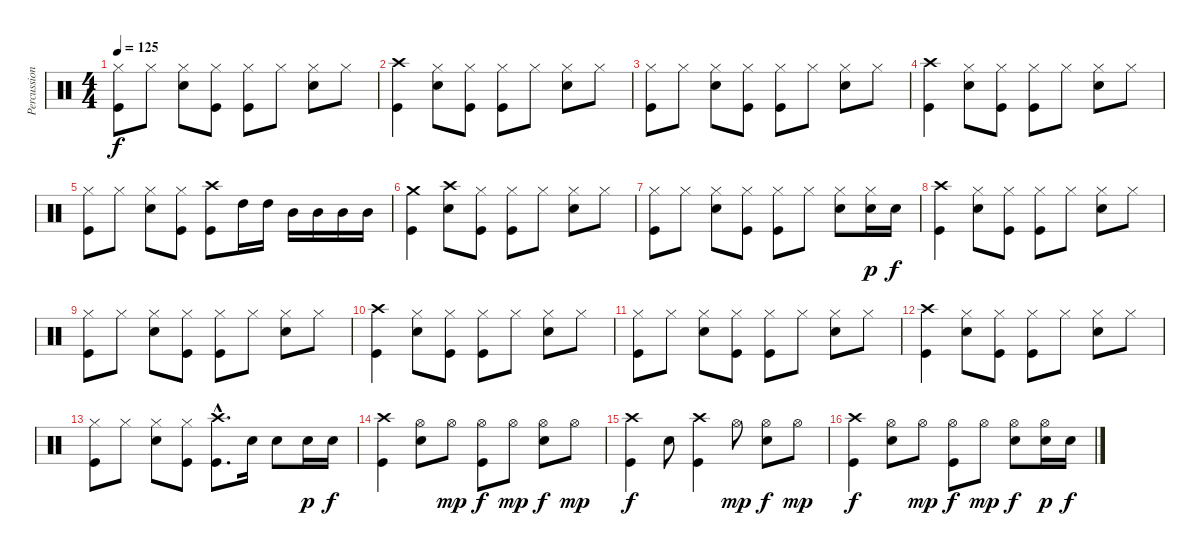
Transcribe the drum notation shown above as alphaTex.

\track ("Percussion" "Percussion") {instrument percussion}
\staff {score}
\articulation defaults
\ts (4 4)
\tempo 125
\clef neutral
\ks c
("Hi-Hat (closed)" "Kick (hit)").8{dy f} "Hi-Hat (closed)".8 ("Hi-Hat (closed)" "Electric Snare (hit)").8 ("Hi-Hat (closed)" "Kick (hit)").8 ("Hi-Hat (closed)" "Kick (hit)").8 "Hi-Hat (closed)".8 ("Hi-Hat (closed)" "Electric Snare (hit)").8 "Hi-Hat (closed)".8 |
("Crash high (hit)" "Kick (hit)").4 ("Hi-Hat (closed)" "Electric Snare (hit)").8 ("Hi-Hat (closed)" "Kick (hit)").8 ("Hi-Hat (closed)" "Kick (hit)").8 "Hi-Hat (closed)".8 ("Hi-Hat (closed)" "Electric Snare (hit)").8 "Hi-Hat (closed)".8 |
("Hi-Hat (closed)" "Kick (hit)").8 "Hi-Hat (closed)".8 ("Hi-Hat (closed)" "Electric Snare (hit)").8 ("Hi-Hat (closed)" "Kick (hit)").8 ("Hi-Hat (closed)" "Kick (hit)").8 "Hi-Hat (closed)".8 ("Hi-Hat (closed)" "Electric Snare (hit)").8 "Hi-Hat (closed)".8 |
("Crash high (hit)" "Kick (hit)").4 ("Hi-Hat (closed)" "Electric Snare (hit)").8 ("Hi-Hat (closed)" "Kick (hit)").8 ("Hi-Hat (closed)" "Kick (hit)").8 "Hi-Hat (closed)".8 ("Hi-Hat (closed)" "Electric Snare (hit)").8 "Hi-Hat (closed)".8 |
("Hi-Hat (closed)" "Kick (hit)").8 "Hi-Hat (closed)".8 ("Hi-Hat (closed)" "Electric Snare (hit)").8 ("Hi-Hat (closed)" "Kick (hit)").8 ("Crash high (hit)" "Kick (hit)").8 "High Tom (hit)".16 "High Tom (hit)".16 "Mid Tom (hit)".16 "Mid Tom (hit)".16 "Mid Tom (hit)".16 "Mid Tom (hit)".16 |
("Crash medium (hit)" "Kick (hit)").4 ("Crash high (hit)" "Electric Snare (hit)").8 ("Hi-Hat (closed)" "Kick (hit)").8 ("Hi-Hat (closed)" "Kick (hit)").8 "Hi-Hat (closed)".8 ("Hi-Hat (closed)" "Electric Snare (hit)").8 "Hi-Hat (closed)".8 |
("Hi-Hat (closed)" "Kick (hit)").8 "Hi-Hat (closed)".8 ("Hi-Hat (closed)" "Electric Snare (hit)").8 ("Hi-Hat (closed)" "Kick (hit)").8 ("Hi-Hat (closed)" "Kick (hit)").8 "Hi-Hat (closed)".8 ("Hi-Hat (closed)" "Electric Snare (hit)").8 ("Hi-Hat (closed)" "Electric Snare (hit)").16{dy p} "Electric Snare (hit)".16{dy f} |
("Crash high (hit)" "Kick (hit)").4 ("Hi-Hat (closed)" "Electric Snare (hit)").8 ("Hi-Hat (closed)" "Kick (hit)").8 ("Hi-Hat (closed)" "Kick (hit)").8 "Hi-Hat (closed)".8 ("Hi-Hat (closed)" "Electric Snare (hit)").8 "Hi-Hat (closed)".8 |
("Hi-Hat (closed)" "Kick (hit)").8 "Hi-Hat (closed)".8 ("Hi-Hat (closed)" "Electric Snare (hit)").8 ("Hi-Hat (closed)" "Kick (hit)").8 ("Hi-Hat (closed)" "Kick (hit)").8 "Hi-Hat (closed)".8 ("Hi-Hat (closed)" "Electric Snare (hit)").8 "Hi-Hat (closed)".8 |
("Crash high (hit)" "Kick (hit)").4 ("Hi-Hat (closed)" "Electric Snare (hit)").8 ("Hi-Hat (closed)" "Kick (hit)").8 ("Hi-Hat (closed)" "Kick (hit)").8 "Hi-Hat (closed)".8 ("Hi-Hat (closed)" "Electric Snare (hit)").8 "Hi-Hat (closed)".8 |
("Hi-Hat (closed)" "Kick (hit)").8 "Hi-Hat (closed)".8 ("Hi-Hat (closed)" "Electric Snare (hit)").8 ("Hi-Hat (closed)" "Kick (hit)").8 ("Hi-Hat (closed)" "Kick (hit)").8 "Hi-Hat (closed)".8 ("Hi-Hat (closed)" "Electric Snare (hit)").8 "Hi-Hat (closed)".8 |
("Crash high (hit)" "Kick (hit)").4 ("Hi-Hat (closed)" "Electric Snare (hit)").8 ("Hi-Hat (closed)" "Kick (hit)").8 ("Hi-Hat (closed)" "Kick (hit)").8 "Hi-Hat (closed)".8 ("Hi-Hat (closed)" "Electric Snare (hit)").8 "Hi-Hat (closed)".8 |
("Hi-Hat (closed)" "Kick (hit)").8 "Hi-Hat (closed)".8 ("Hi-Hat (closed)" "Electric Snare (hit)").8 ("Hi-Hat (closed)" "Kick (hit)").8 ("Crash high (hit)"{hac} "Kick (hit)"{hac}).8{d} "Electric Snare (hit)".16 "Electric Snare (hit)".8 "Electric Snare (hit)".16{dy p} "Electric Snare (hit)".16{dy f} |
("Crash high (hit)" "Kick (hit)").4 ("Hi-Hat (open)" "Electric Snare (hit)").8 "Hi-Hat (open)".8{dy mp} ("Hi-Hat (open)" "Kick (hit)").8{dy f} "Hi-Hat (open)".8{dy mp} ("Hi-Hat (open)" "Electric Snare (hit)").8{dy f} "Hi-Hat (open)".8{dy mp} |
("Crash high (hit)" "Kick (hit)").4{dy f} "Electric Snare (hit)".8 ("Crash high (hit)" "Kick (hit)").4 "Hi-Hat (open)".8{dy mp} ("Hi-Hat (open)" "Electric Snare (hit)").8{dy f} "Hi-Hat (open)".8{dy mp} |
("Crash high (hit)" "Kick (hit)").4{dy f} ("Hi-Hat (open)" "Electric Snare (hit)").8 "Hi-Hat (open)".8{dy mp} ("Hi-Hat (open)" "Kick (hit)").8{dy f} "Hi-Hat (open)".8{dy mp} ("Hi-Hat (open)" "Electric Snare (hit)").8{dy f} ("Hi-Hat (open)" "Electric Snare (hit)").16{dy p} "Electric Snare (hit)".16{dy f}
